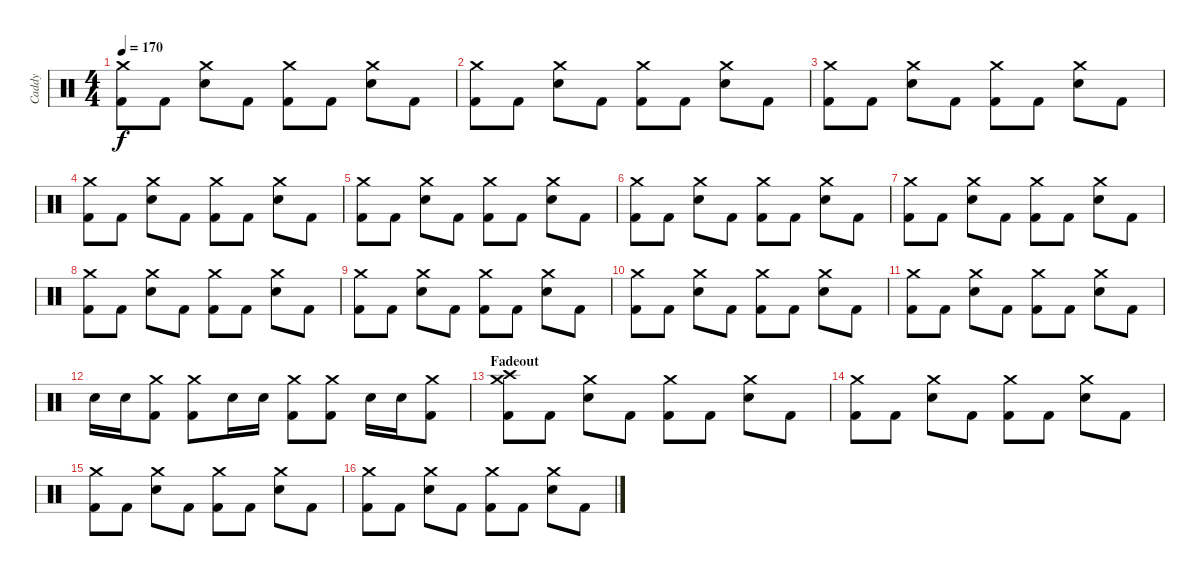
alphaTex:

\track ("Caddy" "Caddy") {instrument percussion}
\staff {score}
\articulation defaults
\ts (4 4)
\tempo 170
\clef neutral
\ks c
("Crash medium (hit)" "Kick (hit) 2").8{dy f} "Kick (hit) 2".8 ("Crash medium (hit)" "Electric Snare (hit)").8 "Kick (hit) 2".8 ("Crash medium (hit)" "Kick (hit) 2").8 "Kick (hit) 2".8 ("Crash medium (hit)" "Electric Snare (hit)").8 "Kick (hit) 2".8 |
("Crash medium (hit)" "Kick (hit) 2").8 "Kick (hit) 2".8 ("Crash medium (hit)" "Electric Snare (hit)").8 "Kick (hit) 2".8 ("Crash medium (hit)" "Kick (hit) 2").8 "Kick (hit) 2".8 ("Crash medium (hit)" "Electric Snare (hit)").8 "Kick (hit) 2".8 |
("Crash medium (hit)" "Kick (hit) 2").8 "Kick (hit) 2".8 ("Crash medium (hit)" "Electric Snare (hit)").8 "Kick (hit) 2".8 ("Crash medium (hit)" "Kick (hit) 2").8 "Kick (hit) 2".8 ("Crash medium (hit)" "Electric Snare (hit)").8 "Kick (hit) 2".8 |
("Crash medium (hit)" "Kick (hit) 2").8 "Kick (hit) 2".8 ("Crash medium (hit)" "Electric Snare (hit)").8 "Kick (hit) 2".8 ("Crash medium (hit)" "Kick (hit) 2").8 "Kick (hit) 2".8 ("Crash medium (hit)" "Electric Snare (hit)").8 "Kick (hit) 2".8 |
("Crash medium (hit)" "Kick (hit) 2").8 "Kick (hit) 2".8 ("Crash medium (hit)" "Electric Snare (hit)").8 "Kick (hit) 2".8 ("Crash medium (hit)" "Kick (hit) 2").8 "Kick (hit) 2".8 ("Crash medium (hit)" "Electric Snare (hit)").8 "Kick (hit) 2".8 |
("Crash medium (hit)" "Kick (hit) 2").8 "Kick (hit) 2".8 ("Crash medium (hit)" "Electric Snare (hit)").8 "Kick (hit) 2".8 ("Crash medium (hit)" "Kick (hit) 2").8 "Kick (hit) 2".8 ("Crash medium (hit)" "Electric Snare (hit)").8 "Kick (hit) 2".8 |
("Crash medium (hit)" "Kick (hit) 2").8 "Kick (hit) 2".8 ("Crash medium (hit)" "Electric Snare (hit)").8 "Kick (hit) 2".8 ("Crash medium (hit)" "Kick (hit) 2").8 "Kick (hit) 2".8 ("Crash medium (hit)" "Electric Snare (hit)").8 "Kick (hit) 2".8 |
("Crash medium (hit)" "Kick (hit) 2").8 "Kick (hit) 2".8 ("Crash medium (hit)" "Electric Snare (hit)").8 "Kick (hit) 2".8 ("Crash medium (hit)" "Kick (hit) 2").8 "Kick (hit) 2".8 ("Crash medium (hit)" "Electric Snare (hit)").8 "Kick (hit) 2".8 |
("Crash medium (hit)" "Kick (hit) 2").8 "Kick (hit) 2".8 ("Crash medium (hit)" "Electric Snare (hit)").8 "Kick (hit) 2".8 ("Crash medium (hit)" "Kick (hit) 2").8 "Kick (hit) 2".8 ("Crash medium (hit)" "Electric Snare (hit)").8 "Kick (hit) 2".8 |
("Crash medium (hit)" "Kick (hit) 2").8 "Kick (hit) 2".8 ("Crash medium (hit)" "Electric Snare (hit)").8 "Kick (hit) 2".8 ("Crash medium (hit)" "Kick (hit) 2").8 "Kick (hit) 2".8 ("Crash medium (hit)" "Electric Snare (hit)").8 "Kick (hit) 2".8 |
("Crash medium (hit)" "Kick (hit) 2").8 "Kick (hit) 2".8 ("Crash medium (hit)" "Electric Snare (hit)").8 "Kick (hit) 2".8 ("Crash medium (hit)" "Kick (hit) 2").8 "Kick (hit) 2".8 ("Crash medium (hit)" "Electric Snare (hit)").8 "Kick (hit) 2".8 |
"Electric Snare (hit)".16 "Electric Snare (hit)".16 ("Crash medium (hit)" "Kick (hit) 2").8 ("Crash medium (hit)" "Kick (hit) 2").8 "Electric Snare (hit)".16 "Electric Snare (hit)".16 ("Crash medium (hit)" "Kick (hit) 2").8 ("Crash medium (hit)" "Kick (hit) 2").8 "Electric Snare (hit)".16 "Electric Snare (hit)".16 ("Crash medium (hit)" "Kick (hit) 2").8 |
\section ("" "Fadeout")
("Crash high (hit)" "Crash medium (hit)" "Kick (hit) 2").8{volume 11} "Kick (hit) 2".8 ("Crash medium (hit)" "Electric Snare (hit)").8 "Kick (hit) 2".8 ("Crash medium (hit)" "Kick (hit) 2").8 "Kick (hit) 2".8 ("Crash medium (hit)" "Electric Snare (hit)").8 "Kick (hit) 2".8 |
("Crash medium (hit)" "Kick (hit) 2").8 "Kick (hit) 2".8 ("Crash medium (hit)" "Electric Snare (hit)").8 "Kick (hit) 2".8 ("Crash medium (hit)" "Kick (hit) 2").8 "Kick (hit) 2".8 ("Crash medium (hit)" "Electric Snare (hit)").8 "Kick (hit) 2".8 |
("Crash medium (hit)" "Kick (hit) 2").8 "Kick (hit) 2".8 ("Crash medium (hit)" "Electric Snare (hit)").8 "Kick (hit) 2".8 ("Crash medium (hit)" "Kick (hit) 2").8 "Kick (hit) 2".8 ("Crash medium (hit)" "Electric Snare (hit)").8 "Kick (hit) 2".8 |
("Crash medium (hit)" "Kick (hit) 2").8 "Kick (hit) 2".8 ("Crash medium (hit)" "Electric Snare (hit)").8 "Kick (hit) 2".8 ("Crash medium (hit)" "Kick (hit) 2").8 "Kick (hit) 2".8 ("Crash medium (hit)" "Electric Snare (hit)").8 "Kick (hit) 2".8
